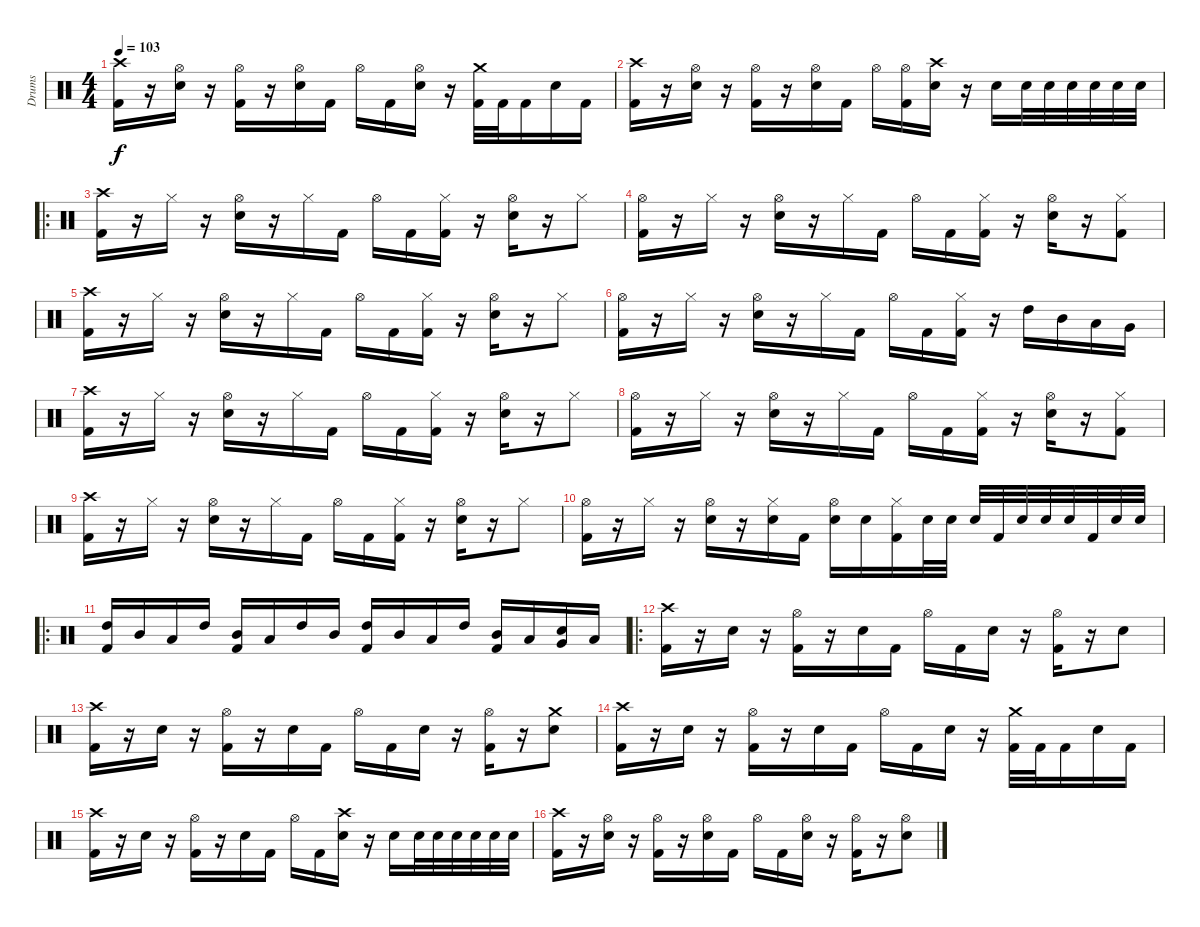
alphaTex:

\track ("Drums" "Drums") {instrument percussion}
\staff {score}
\articulation defaults
\ts (4 4)
\tempo 103
\clef neutral
\ks c
("Crash high (hit)" "Kick (hit) 2").16{dy f} r.16 ("Hi-Hat (open)" "Snare (hit) 2").16 r.16 ("Hi-Hat (open)" "Kick (hit) 2").16 r.16 ("Hi-Hat (open)" "Snare (hit) 2").16 "Kick (hit) 2".16 "Hi-Hat (open)".16 "Kick (hit) 2".16 ("Hi-Hat (open)" "Snare (hit) 2").16 r.16 ("Crash medium (hit)" "Kick (hit) 2").32 "Kick (hit) 2".32 "Kick (hit) 2".16 "Snare (hit) 2".16 "Kick (hit) 2".16 |
("Crash high (hit)" "Kick (hit) 2").16 r.16 ("Hi-Hat (open)" "Snare (hit) 2").16 r.16 ("Hi-Hat (open)" "Kick (hit) 2").16 r.16 ("Hi-Hat (open)" "Snare (hit) 2").16 "Kick (hit) 2".16 "Hi-Hat (open)".16 ("Hi-Hat (open)" "Kick (hit) 2").16 ("Crash high (hit)" "Snare (hit) 2").16 r.16 "Snare (hit) 2".16 "Snare (hit) 2".32 "Snare (hit) 2".32 "Snare (hit) 2".32 "Snare (hit) 2".32 "Snare (hit) 2".32 "Snare (hit) 2".32 |
\ro
("Crash high (hit)" "Kick (hit) 2").16 r.16 "Hi-Hat (closed)".16 r.16 ("Hi-Hat (open)" "Snare (hit) 2").16 r.16 "Hi-Hat (closed)".16 "Kick (hit) 2".16 "Hi-Hat (open)".16 "Kick (hit) 2".16 ("Hi-Hat (closed)" "Kick (hit) 2").16 r.16 ("Hi-Hat (open)" "Snare (hit) 2").16 r.16 "Hi-Hat (closed)".8 |
("Hi-Hat (open)" "Kick (hit) 2").16 r.16 "Hi-Hat (closed)".16 r.16 ("Hi-Hat (open)" "Snare (hit) 2").16 r.16 "Hi-Hat (closed)".16 "Kick (hit) 2".16 "Hi-Hat (open)".16 "Kick (hit) 2".16 ("Hi-Hat (closed)" "Kick (hit) 2").16 r.16 ("Hi-Hat (open)" "Snare (hit) 2").16 r.16 ("Hi-Hat (closed)" "Kick (hit) 2").8 |
("Crash high (hit)" "Kick (hit) 2").16 r.16 "Hi-Hat (closed)".16 r.16 ("Hi-Hat (open)" "Snare (hit) 2").16 r.16 "Hi-Hat (closed)".16 "Kick (hit) 2".16 "Hi-Hat (open)".16 "Kick (hit) 2".16 ("Hi-Hat (closed)" "Kick (hit) 2").16 r.16 ("Hi-Hat (open)" "Snare (hit) 2").16 r.16 "Hi-Hat (closed)".8 |
("Hi-Hat (open)" "Kick (hit) 2").16 r.16 "Hi-Hat (closed)".16 r.16 ("Hi-Hat (open)" "Snare (hit) 2").16 r.16 "Hi-Hat (closed)".16 "Kick (hit) 2".16 "Hi-Hat (open)".16 "Kick (hit) 2".16 ("Hi-Hat (closed)" "Kick (hit) 2").16 r.16 "High Tom (hit)".16 "Mid Tom (hit)".16 "Low Tom (hit)".16 "Very Low Tom (hit)".16 |
("Crash high (hit)" "Kick (hit) 2").16 r.16 "Hi-Hat (closed)".16 r.16 ("Hi-Hat (open)" "Snare (hit) 2").16 r.16 "Hi-Hat (closed)".16 "Kick (hit) 2".16 "Hi-Hat (open)".16 "Kick (hit) 2".16 ("Hi-Hat (closed)" "Kick (hit) 2").16 r.16 ("Hi-Hat (open)" "Snare (hit) 2").16 r.16 "Hi-Hat (closed)".8 |
("Hi-Hat (open)" "Kick (hit) 2").16 r.16 "Hi-Hat (closed)".16 r.16 ("Hi-Hat (open)" "Snare (hit) 2").16 r.16 "Hi-Hat (closed)".16 "Kick (hit) 2".16 "Hi-Hat (open)".16 "Kick (hit) 2".16 ("Hi-Hat (closed)" "Kick (hit) 2").16 r.16 ("Hi-Hat (open)" "Snare (hit) 2").16 r.16 ("Hi-Hat (closed)" "Kick (hit) 2").8 |
("Crash high (hit)" "Kick (hit) 2").16 r.16 "Hi-Hat (closed)".16 r.16 ("Hi-Hat (open)" "Snare (hit) 2").16 r.16 "Hi-Hat (closed)".16 "Kick (hit) 2".16 "Hi-Hat (open)".16 "Kick (hit) 2".16 ("Hi-Hat (closed)" "Kick (hit) 2").16 r.16 ("Hi-Hat (open)" "Snare (hit) 2").16 r.16 "Hi-Hat (closed)".8 |
("Hi-Hat (open)" "Kick (hit) 2").16 r.16 "Hi-Hat (closed)".16 r.16 ("Hi-Hat (open)" "Snare (hit) 2").16 r.16 ("Hi-Hat (closed)" "Snare (hit) 2").16 "Kick (hit) 2".16 ("Hi-Hat (open)" "Snare (hit) 2").16 "Snare (hit) 2".16 ("Hi-Hat (closed)" "Kick (hit) 2").16 "Snare (hit) 2".32 "Snare (hit) 2".32 "Snare (hit) 2".32 "Kick (hit) 2".32 "Snare (hit) 2".32 "Snare (hit) 2".32 "Snare (hit) 2".32 "Kick (hit) 2".32 "Snare (hit) 2".32 "Snare (hit) 2".32 |
\ro
("High Tom (hit)" "Kick (hit) 2").16 "Mid Tom (hit)".16 "Low Tom (hit)".16 "High Tom (hit)".16 ("Mid Tom (hit)" "Kick (hit) 2").16 "Low Tom (hit)".16 "High Tom (hit)".16 "Mid Tom (hit)".16 ("High Tom (hit)" "Kick (hit) 2").16 "Mid Tom (hit)".16 "Low Tom (hit)".16 "High Tom (hit)".16 ("Mid Tom (hit)" "Kick (hit) 2").16 "Low Tom (hit)".16 ("Very Low Tom (hit)" "Snare (hit) 2").16 "Low Tom (hit)".16 |
\ro
("Crash high (hit)" "Kick (hit) 2").16 r.16 "Snare (hit) 2".16 r.16 ("Hi-Hat (open)" "Kick (hit) 2").16 r.16 "Snare (hit) 2".16 "Kick (hit) 2".16 "Hi-Hat (open)".16 "Kick (hit) 2".16 "Snare (hit) 2".16 r.16 ("Hi-Hat (open)" "Kick (hit) 2").16 r.16 "Snare (hit) 2".8 |
("Crash high (hit)" "Kick (hit) 2").16 r.16 "Snare (hit) 2".16 r.16 ("Hi-Hat (open)" "Kick (hit) 2").16 r.16 "Snare (hit) 2".16 "Kick (hit) 2".16 "Hi-Hat (open)".16 "Kick (hit) 2".16 "Snare (hit) 2".16 r.16 ("Hi-Hat (open)" "Kick (hit) 2").16 r.16 ("Crash medium (hit)" "Snare (hit) 2").8 |
("Crash high (hit)" "Kick (hit) 2").16 r.16 "Snare (hit) 2".16 r.16 ("Hi-Hat (open)" "Kick (hit) 2").16 r.16 "Snare (hit) 2".16 "Kick (hit) 2".16 "Hi-Hat (open)".16 "Kick (hit) 2".16 "Snare (hit) 2".16 r.16 ("Crash medium (hit)" "Kick (hit) 2").32 "Kick (hit) 2".32 "Kick (hit) 2".16 "Snare (hit) 2".16 "Kick (hit) 2".16 |
("Crash high (hit)" "Kick (hit) 2").16 r.16 "Snare (hit) 2".16 r.16 ("Hi-Hat (open)" "Kick (hit) 2").16 r.16 "Snare (hit) 2".16 "Kick (hit) 2".16 "Hi-Hat (open)".16 "Kick (hit) 2".16 ("Crash high (hit)" "Snare (hit) 2").16 r.16 "Snare (hit) 2".16 "Snare (hit) 2".32 "Snare (hit) 2".32 "Snare (hit) 2".32 "Snare (hit) 2".32 "Snare (hit) 2".32 "Snare (hit) 2".32 |
("Crash high (hit)" "Kick (hit) 2").16 r.16 ("Hi-Hat (open)" "Snare (hit) 2").16 r.16 ("Hi-Hat (open)" "Kick (hit) 2").16 r.16 ("Hi-Hat (open)" "Snare (hit) 2").16 "Kick (hit) 2".16 "Hi-Hat (open)".16 "Kick (hit) 2".16 ("Hi-Hat (open)" "Snare (hit) 2").16 r.16 ("Hi-Hat (open)" "Kick (hit) 2").16 r.16 ("Hi-Hat (open)" "Snare (hit) 2").8
